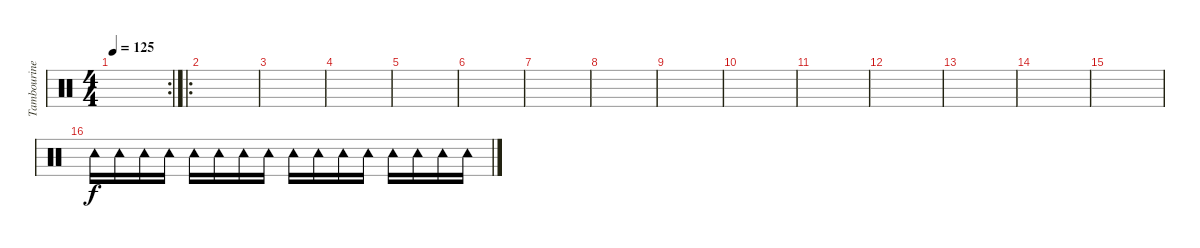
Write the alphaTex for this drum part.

\track ("Tambourine" "Tambourine") {instrument percussion}
\staff {score}
\articulation defaults
\rc 2
\ts (4 4)
\tempo 125
\clef neutral
\ks c
|
\ro
|
|
|
|
|
|
|
|
|
|
|
|
|
|
"Tambourine (hit)".16 "Tambourine (hit)".16 "Tambourine (hit)".16 "Tambourine (hit)".16 "Tambourine (hit)".16 "Tambourine (hit)".16 "Tambourine (hit)".16 "Tambourine (hit)".16 "Tambourine (hit)".16 "Tambourine (hit)".16 "Tambourine (hit)".16 "Tambourine (hit)".16 "Tambourine (hit)".16 "Tambourine (hit)".16 "Tambourine (hit)".16 "Tambourine (hit)".16
